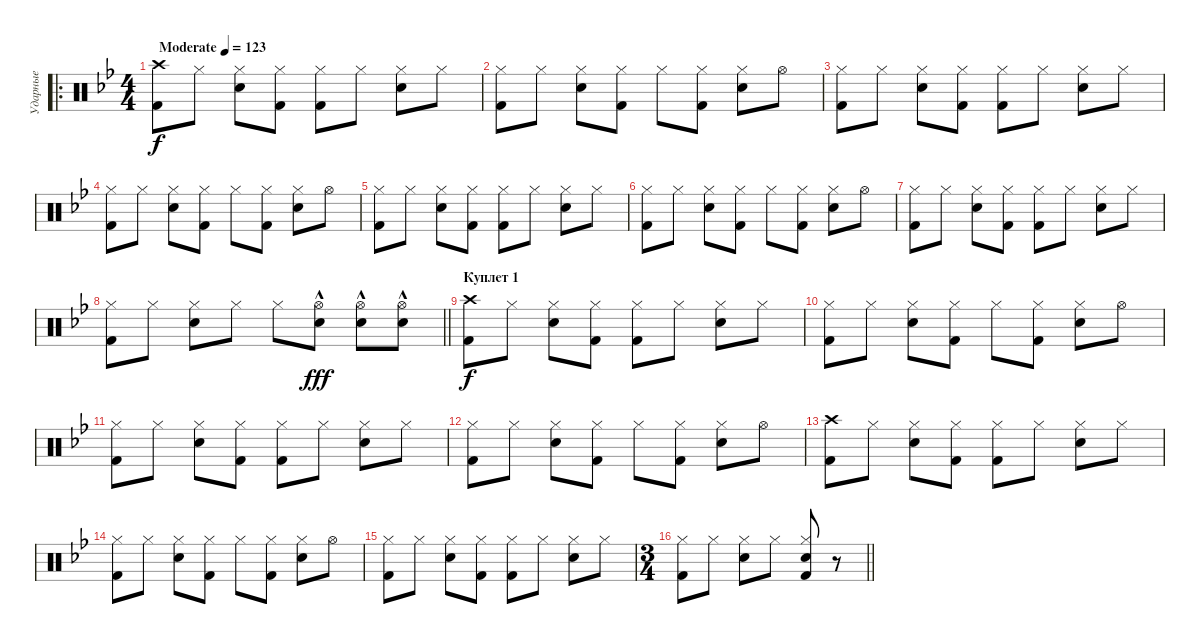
\track ("Ударные" "Ударные") {instrument percussion}
\staff {score}
\articulation defaults
\ro
\ts (4 4)
\tempo (123 "Moderate")
\clef neutral
\ks gminor
("Crash high (hit)" "Kick (hit) 2").8{dy f} "Hi-Hat (closed)".8 ("Hi-Hat (closed)" "Snare (hit) 2").8 ("Hi-Hat (closed)" "Kick (hit) 2").8 ("Hi-Hat (closed)" "Kick (hit) 2").8 "Hi-Hat (closed)".8 ("Hi-Hat (closed)" "Snare (hit) 2").8 "Hi-Hat (closed)".8 |
("Hi-Hat (closed)" "Kick (hit) 2").8 "Hi-Hat (closed)".8 ("Hi-Hat (closed)" "Snare (hit) 2").8 ("Hi-Hat (closed)" "Kick (hit) 2").8 "Hi-Hat (closed)".8 ("Hi-Hat (closed)" "Kick (hit) 2").8 ("Hi-Hat (closed)" "Snare (hit) 2").8 "Hi-Hat (open)".8 |
("Hi-Hat (closed)" "Kick (hit) 2").8 "Hi-Hat (closed)".8 ("Hi-Hat (closed)" "Snare (hit) 2").8 ("Hi-Hat (closed)" "Kick (hit) 2").8 ("Hi-Hat (closed)" "Kick (hit) 2").8 "Hi-Hat (closed)".8 ("Hi-Hat (closed)" "Snare (hit) 2").8 "Hi-Hat (closed)".8 |
("Hi-Hat (closed)" "Kick (hit) 2").8 "Hi-Hat (closed)".8 ("Hi-Hat (closed)" "Snare (hit) 2").8 ("Hi-Hat (closed)" "Kick (hit) 2").8 "Hi-Hat (closed)".8 ("Hi-Hat (closed)" "Kick (hit) 2").8 ("Hi-Hat (closed)" "Snare (hit) 2").8 "Hi-Hat (open)".8 |
("Hi-Hat (closed)" "Kick (hit) 2").8 "Hi-Hat (closed)".8 ("Hi-Hat (closed)" "Snare (hit) 2").8 ("Hi-Hat (closed)" "Kick (hit) 2").8 ("Hi-Hat (closed)" "Kick (hit) 2").8 "Hi-Hat (closed)".8 ("Hi-Hat (closed)" "Snare (hit) 2").8 "Hi-Hat (closed)".8 |
("Hi-Hat (closed)" "Kick (hit) 2").8 "Hi-Hat (closed)".8 ("Hi-Hat (closed)" "Snare (hit) 2").8 ("Hi-Hat (closed)" "Kick (hit) 2").8 "Hi-Hat (closed)".8 ("Hi-Hat (closed)" "Kick (hit) 2").8 ("Hi-Hat (closed)" "Snare (hit) 2").8 "Hi-Hat (open)".8 |
("Hi-Hat (closed)" "Kick (hit) 2").8 "Hi-Hat (closed)".8 ("Hi-Hat (closed)" "Snare (hit) 2").8 ("Hi-Hat (closed)" "Kick (hit) 2").8 ("Hi-Hat (closed)" "Kick (hit) 2").8 "Hi-Hat (closed)".8 ("Hi-Hat (closed)" "Snare (hit) 2").8 "Hi-Hat (closed)".8 |
\barLineRight lightlight
("Hi-Hat (closed)" "Kick (hit) 2").8 "Hi-Hat (closed)".8 ("Hi-Hat (closed)" "Snare (hit) 2").8 "Hi-Hat (closed)".8 "Hi-Hat (closed)".8 ("Hi-Hat (open)"{hac} "Snare (hit) 2").8{dy fff} ("Hi-Hat (open)"{hac} "Snare (hit) 2").8 ("Hi-Hat (open)"{hac} "Snare (hit) 2").8 |
\section ("" "Куплет 1")
("Crash high (hit)" "Kick (hit) 2").8{dy f} "Hi-Hat (closed)".8 ("Hi-Hat (closed)" "Snare (hit) 2").8 ("Hi-Hat (closed)" "Kick (hit) 2").8 ("Hi-Hat (closed)" "Kick (hit) 2").8 "Hi-Hat (closed)".8 ("Hi-Hat (closed)" "Snare (hit) 2").8 "Hi-Hat (closed)".8 |
("Hi-Hat (closed)" "Kick (hit) 2").8 "Hi-Hat (closed)".8 ("Hi-Hat (closed)" "Snare (hit) 2").8 ("Hi-Hat (closed)" "Kick (hit) 2").8 "Hi-Hat (closed)".8 ("Hi-Hat (closed)" "Kick (hit) 2").8 ("Hi-Hat (closed)" "Snare (hit) 2").8 "Hi-Hat (open)".8 |
("Hi-Hat (closed)" "Kick (hit) 2").8 "Hi-Hat (closed)".8 ("Hi-Hat (closed)" "Snare (hit) 2").8 ("Hi-Hat (closed)" "Kick (hit) 2").8 ("Hi-Hat (closed)" "Kick (hit) 2").8 "Hi-Hat (closed)".8 ("Hi-Hat (closed)" "Snare (hit) 2").8 "Hi-Hat (closed)".8 |
("Hi-Hat (closed)" "Kick (hit) 2").8 "Hi-Hat (closed)".8 ("Hi-Hat (closed)" "Snare (hit) 2").8 ("Hi-Hat (closed)" "Kick (hit) 2").8 "Hi-Hat (closed)".8 ("Hi-Hat (closed)" "Kick (hit) 2").8 ("Hi-Hat (closed)" "Snare (hit) 2").8 "Hi-Hat (open)".8 |
("Crash high (hit)" "Kick (hit) 2").8 "Hi-Hat (closed)".8 ("Hi-Hat (closed)" "Snare (hit) 2").8 ("Hi-Hat (closed)" "Kick (hit) 2").8 ("Hi-Hat (closed)" "Kick (hit) 2").8 "Hi-Hat (closed)".8 ("Hi-Hat (closed)" "Snare (hit) 2").8 "Hi-Hat (closed)".8 |
("Hi-Hat (closed)" "Kick (hit) 2").8 "Hi-Hat (closed)".8 ("Hi-Hat (closed)" "Snare (hit) 2").8 ("Hi-Hat (closed)" "Kick (hit) 2").8 "Hi-Hat (closed)".8 ("Hi-Hat (closed)" "Kick (hit) 2").8 ("Hi-Hat (closed)" "Snare (hit) 2").8 "Hi-Hat (open)".8 |
("Hi-Hat (closed)" "Kick (hit) 2").8 "Hi-Hat (closed)".8 ("Hi-Hat (closed)" "Snare (hit) 2").8 ("Hi-Hat (closed)" "Kick (hit) 2").8 ("Hi-Hat (closed)" "Kick (hit) 2").8 "Hi-Hat (closed)".8 ("Hi-Hat (closed)" "Snare (hit) 2").8 "Hi-Hat (closed)".8 |
\ts (3 4)
\barLineRight lightlight
("Hi-Hat (closed)" "Kick (hit) 2").8 "Hi-Hat (closed)".8 ("Hi-Hat (closed)" "Snare (hit) 2").8 "Hi-Hat (closed)".8 ("Kick (hit) 2" "Hi-Hat (closed)" "Snare (hit) 2").8 r.8
